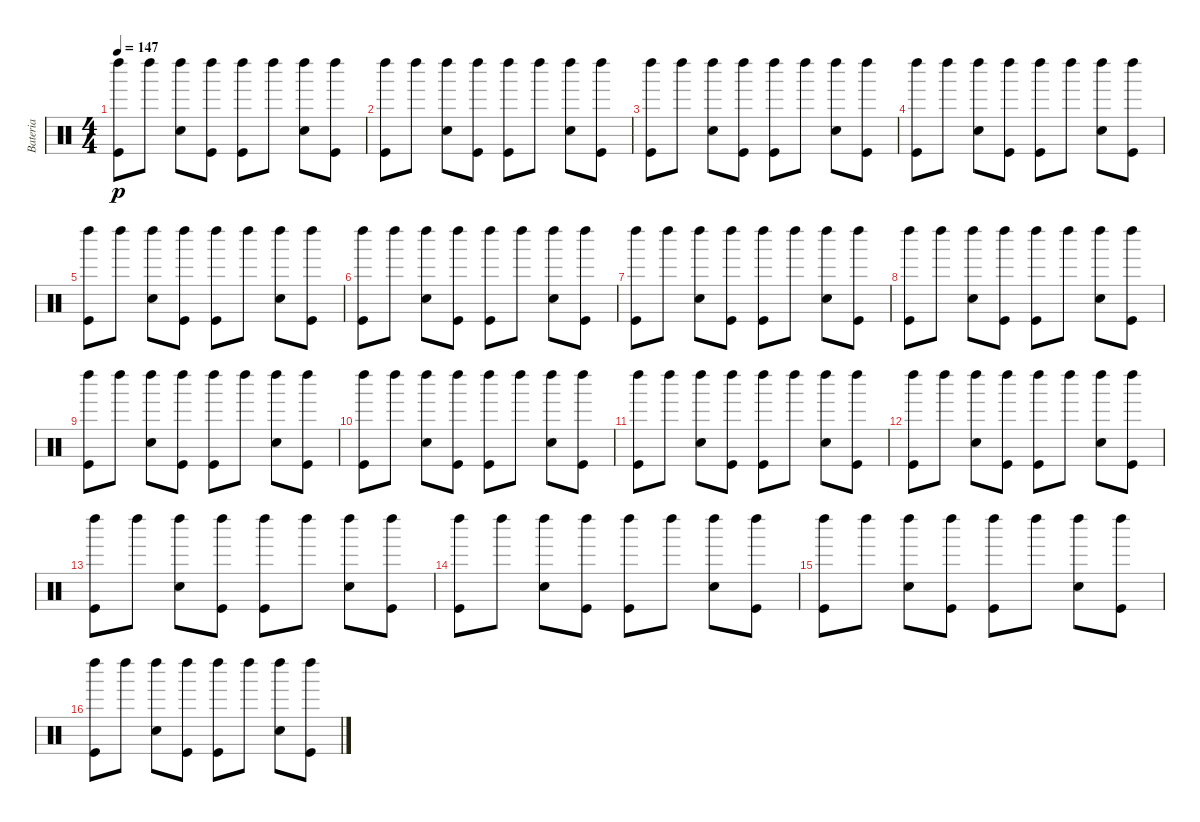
\track ("Bateria" "Bateria") {instrument percussion}
\staff {score}
\articulation defaults
\ts (4 4)
\tempo 147
\clef neutral
\ks c
("Kick (hit)" "Left Maraca (hit)").8{dy p} "Left Maraca (hit)".8 ("Snare (hit) 2" "Left Maraca (hit)").8 ("Left Maraca (hit)" "Kick (hit)").8 ("Left Maraca (hit)" "Kick (hit)").8 "Left Maraca (hit)".8 ("Snare (hit) 2" "Left Maraca (hit)").8 ("Kick (hit)" "Left Maraca (hit)").8 |
("Left Maraca (hit)" "Kick (hit)").8 "Left Maraca (hit)".8 ("Snare (hit) 2" "Left Maraca (hit)").8 ("Left Maraca (hit)" "Kick (hit)").8 ("Left Maraca (hit)" "Kick (hit)").8 "Left Maraca (hit)".8 ("Snare (hit) 2" "Left Maraca (hit)").8 ("Kick (hit)" "Left Maraca (hit)").8 |
("Kick (hit)" "Left Maraca (hit)").8 "Left Maraca (hit)".8 ("Snare (hit) 2" "Left Maraca (hit)").8 ("Left Maraca (hit)" "Kick (hit)").8 ("Left Maraca (hit)" "Kick (hit)").8 "Left Maraca (hit)".8 ("Snare (hit) 2" "Left Maraca (hit)").8 ("Kick (hit)" "Left Maraca (hit)").8 |
("Left Maraca (hit)" "Kick (hit)").8 "Left Maraca (hit)".8 ("Snare (hit) 2" "Left Maraca (hit)").8 ("Left Maraca (hit)" "Kick (hit)").8 ("Left Maraca (hit)" "Kick (hit)").8 "Left Maraca (hit)".8 ("Snare (hit) 2" "Left Maraca (hit)").8 ("Kick (hit)" "Left Maraca (hit)").8 |
("Kick (hit)" "Left Maraca (hit)").8 "Left Maraca (hit)".8 ("Snare (hit) 2" "Left Maraca (hit)").8 ("Left Maraca (hit)" "Kick (hit)").8 ("Left Maraca (hit)" "Kick (hit)").8 "Left Maraca (hit)".8 ("Snare (hit) 2" "Left Maraca (hit)").8 ("Kick (hit)" "Left Maraca (hit)").8 |
("Left Maraca (hit)" "Kick (hit)").8 "Left Maraca (hit)".8 ("Snare (hit) 2" "Left Maraca (hit)").8 ("Left Maraca (hit)" "Kick (hit)").8 ("Left Maraca (hit)" "Kick (hit)").8 "Left Maraca (hit)".8 ("Snare (hit) 2" "Left Maraca (hit)").8 ("Kick (hit)" "Left Maraca (hit)").8 |
("Kick (hit)" "Left Maraca (hit)").8 "Left Maraca (hit)".8 ("Snare (hit) 2" "Left Maraca (hit)").8 ("Left Maraca (hit)" "Kick (hit)").8 ("Left Maraca (hit)" "Kick (hit)").8 "Left Maraca (hit)".8 ("Snare (hit) 2" "Left Maraca (hit)").8 ("Kick (hit)" "Left Maraca (hit)").8 |
("Left Maraca (hit)" "Kick (hit)").8 "Left Maraca (hit)".8 ("Snare (hit) 2" "Left Maraca (hit)").8 ("Left Maraca (hit)" "Kick (hit)").8 ("Left Maraca (hit)" "Kick (hit)").8 "Left Maraca (hit)".8 ("Snare (hit) 2" "Left Maraca (hit)").8 ("Kick (hit)" "Left Maraca (hit)").8 |
("Kick (hit)" "Left Maraca (hit)").8 "Left Maraca (hit)".8 ("Snare (hit) 2" "Left Maraca (hit)").8 ("Left Maraca (hit)" "Kick (hit)").8 ("Left Maraca (hit)" "Kick (hit)").8 "Left Maraca (hit)".8 ("Snare (hit) 2" "Left Maraca (hit)").8 ("Kick (hit)" "Left Maraca (hit)").8 |
("Left Maraca (hit)" "Kick (hit)").8 "Left Maraca (hit)".8 ("Snare (hit) 2" "Left Maraca (hit)").8 ("Left Maraca (hit)" "Kick (hit)").8 ("Left Maraca (hit)" "Kick (hit)").8 "Left Maraca (hit)".8 ("Snare (hit) 2" "Left Maraca (hit)").8 ("Kick (hit)" "Left Maraca (hit)").8 |
("Kick (hit)" "Left Maraca (hit)").8 "Left Maraca (hit)".8 ("Snare (hit) 2" "Left Maraca (hit)").8 ("Left Maraca (hit)" "Kick (hit)").8 ("Left Maraca (hit)" "Kick (hit)").8 "Left Maraca (hit)".8 ("Snare (hit) 2" "Left Maraca (hit)").8 ("Kick (hit)" "Left Maraca (hit)").8 |
("Left Maraca (hit)" "Kick (hit)").8 "Left Maraca (hit)".8 ("Snare (hit) 2" "Left Maraca (hit)").8 ("Left Maraca (hit)" "Kick (hit)").8 ("Left Maraca (hit)" "Kick (hit)").8 "Left Maraca (hit)".8 ("Snare (hit) 2" "Left Maraca (hit)").8 ("Kick (hit)" "Left Maraca (hit)").8 |
("Kick (hit)" "Left Maraca (hit)").8 "Left Maraca (hit)".8 ("Snare (hit) 2" "Left Maraca (hit)").8 ("Left Maraca (hit)" "Kick (hit)").8 ("Left Maraca (hit)" "Kick (hit)").8 "Left Maraca (hit)".8 ("Snare (hit) 2" "Left Maraca (hit)").8 ("Kick (hit)" "Left Maraca (hit)").8 |
("Left Maraca (hit)" "Kick (hit)").8 "Left Maraca (hit)".8 ("Snare (hit) 2" "Left Maraca (hit)").8 ("Left Maraca (hit)" "Kick (hit)").8 ("Left Maraca (hit)" "Kick (hit)").8 "Left Maraca (hit)".8 ("Snare (hit) 2" "Left Maraca (hit)").8 ("Kick (hit)" "Left Maraca (hit)").8 |
("Kick (hit)" "Left Maraca (hit)").8 "Left Maraca (hit)".8 ("Snare (hit) 2" "Left Maraca (hit)").8 ("Left Maraca (hit)" "Kick (hit)").8 ("Left Maraca (hit)" "Kick (hit)").8 "Left Maraca (hit)".8 ("Snare (hit) 2" "Left Maraca (hit)").8 ("Kick (hit)" "Left Maraca (hit)").8 |
("Left Maraca (hit)" "Kick (hit)").8 "Left Maraca (hit)".8 ("Snare (hit) 2" "Left Maraca (hit)").8 ("Left Maraca (hit)" "Kick (hit)").8 ("Left Maraca (hit)" "Kick (hit)").8 "Left Maraca (hit)".8 ("Snare (hit) 2" "Left Maraca (hit)").8 ("Kick (hit)" "Left Maraca (hit)").8
